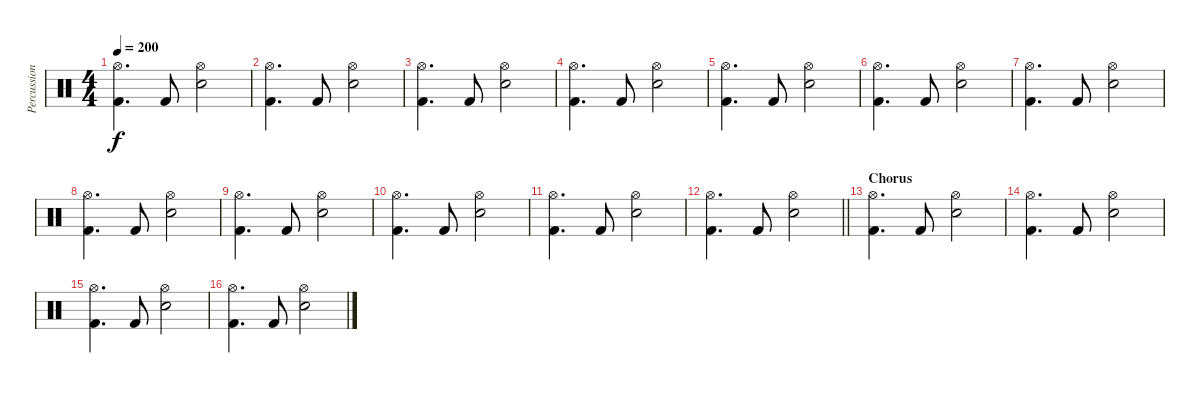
\track ("Percussion" "Percussion") {instrument percussion}
\staff {score}
\articulation defaults
\ts (4 4)
\tempo 200
\clef neutral
\ks c
("Hi-Hat (open)" "Kick (hit) 2").4{d dy f} "Kick (hit) 2".8 ("Hi-Hat (open)" "Electric Snare (hit)").2 |
("Hi-Hat (open)" "Kick (hit) 2").4{d} "Kick (hit) 2".8 ("Hi-Hat (open)" "Electric Snare (hit)").2 |
("Hi-Hat (open)" "Kick (hit) 2").4{d} "Kick (hit) 2".8 ("Hi-Hat (open)" "Electric Snare (hit)").2 |
("Hi-Hat (open)" "Kick (hit) 2").4{d} "Kick (hit) 2".8 ("Hi-Hat (open)" "Electric Snare (hit)").2 |
("Hi-Hat (open)" "Kick (hit) 2").4{d} "Kick (hit) 2".8 ("Hi-Hat (open)" "Electric Snare (hit)").2 |
("Hi-Hat (open)" "Kick (hit) 2").4{d} "Kick (hit) 2".8 ("Hi-Hat (open)" "Electric Snare (hit)").2 |
("Hi-Hat (open)" "Kick (hit) 2").4{d} "Kick (hit) 2".8 ("Hi-Hat (open)" "Electric Snare (hit)").2 |
("Hi-Hat (open)" "Kick (hit) 2").4{d} "Kick (hit) 2".8 ("Hi-Hat (open)" "Electric Snare (hit)").2 |
("Hi-Hat (open)" "Kick (hit) 2").4{d} "Kick (hit) 2".8 ("Hi-Hat (open)" "Electric Snare (hit)").2 |
("Hi-Hat (open)" "Kick (hit) 2").4{d} "Kick (hit) 2".8 ("Hi-Hat (open)" "Electric Snare (hit)").2 |
("Hi-Hat (open)" "Kick (hit) 2").4{d} "Kick (hit) 2".8 ("Hi-Hat (open)" "Electric Snare (hit)").2 |
\barLineRight lightlight
("Hi-Hat (open)" "Kick (hit) 2").4{d} "Kick (hit) 2".8 ("Hi-Hat (open)" "Electric Snare (hit)").2 |
\section ("" "Chorus")
("Hi-Hat (open)" "Kick (hit) 2").4{d} "Kick (hit) 2".8 ("Hi-Hat (open)" "Electric Snare (hit)").2 |
("Hi-Hat (open)" "Kick (hit) 2").4{d} "Kick (hit) 2".8 ("Hi-Hat (open)" "Electric Snare (hit)").2 |
("Hi-Hat (open)" "Kick (hit) 2").4{d} "Kick (hit) 2".8 ("Hi-Hat (open)" "Electric Snare (hit)").2 |
("Hi-Hat (open)" "Kick (hit) 2").4{d} "Kick (hit) 2".8 ("Hi-Hat (open)" "Electric Snare (hit)").2
